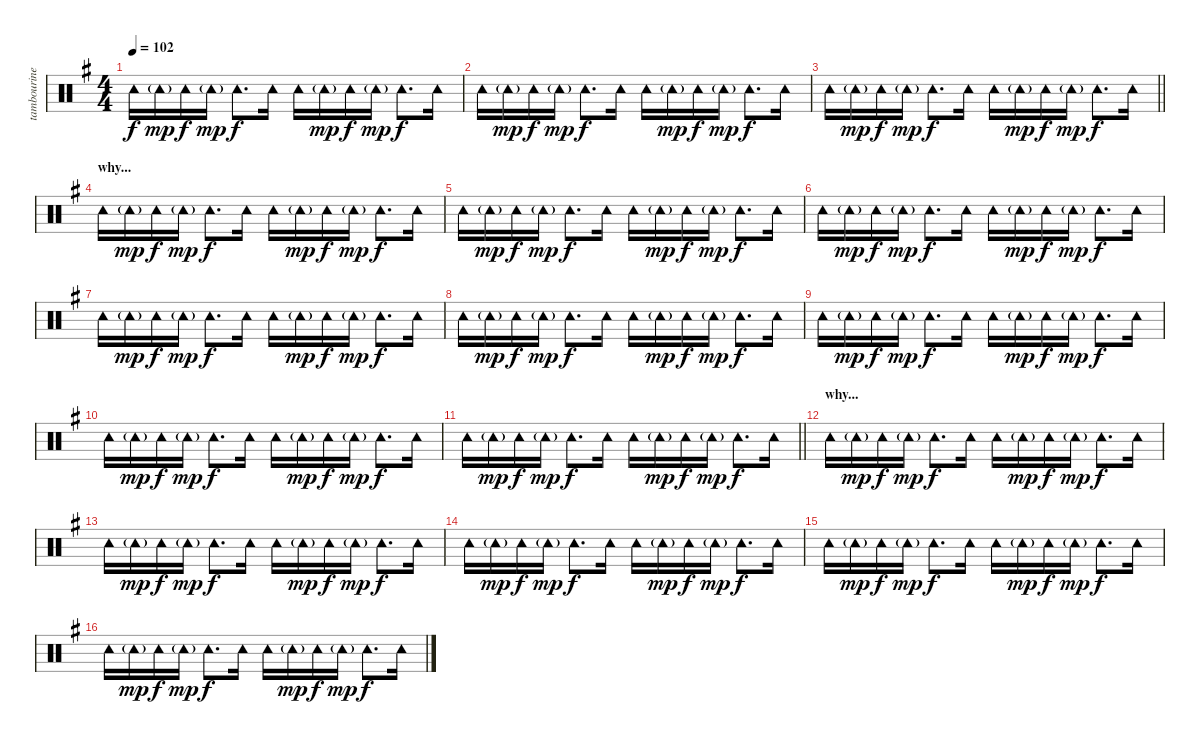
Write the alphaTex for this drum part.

\track ("tambourine" "tambourine") {instrument percussion}
\staff {score}
\articulation defaults
\ts (4 4)
\tempo 102
\clef neutral
\ks eminor "Tambourine (hit)".16{dy f} "Tambourine (hit)"{g}.16{dy mp} "Tambourine (hit)".16{dy f} "Tambourine (hit)"{g}.16{dy mp} "Tambourine (hit)".8{d dy f} "Tambourine (hit)".16 "Tambourine (hit)".16 "Tambourine (hit)"{g}.16{dy mp} "Tambourine (hit)".16{dy f} "Tambourine (hit)"{g}.16{dy mp} "Tambourine (hit)".8{d dy f} "Tambourine (hit)".16
|
"Tambourine (hit)".16 "Tambourine (hit)"{g}.16{dy mp} "Tambourine (hit)".16{dy f} "Tambourine (hit)"{g}.16{dy mp} "Tambourine (hit)".8{d dy f} "Tambourine (hit)".16 "Tambourine (hit)".16 "Tambourine (hit)"{g}.16{dy mp} "Tambourine (hit)".16{dy f} "Tambourine (hit)"{g}.16{dy mp} "Tambourine (hit)".8{d dy f} "Tambourine (hit)".16 |
\barLineRight lightlight "Tambourine (hit)".16 "Tambourine (hit)"{g}.16{dy mp} "Tambourine (hit)".16{dy f} "Tambourine (hit)"{g}.16{dy mp} "Tambourine (hit)".8{d dy f} "Tambourine (hit)".16 "Tambourine (hit)".16 "Tambourine (hit)"{g}.16{dy mp} "Tambourine (hit)".16{dy f} "Tambourine (hit)"{g}.16{dy mp} "Tambourine (hit)".8{d dy f} "Tambourine (hit)".16
|
\section ("" "why...")
"Tambourine (hit)".16 "Tambourine (hit)"{g}.16{dy mp} "Tambourine (hit)".16{dy f} "Tambourine (hit)"{g}.16{dy mp} "Tambourine (hit)".8{d dy f} "Tambourine (hit)".16 "Tambourine (hit)".16 "Tambourine (hit)"{g}.16{dy mp} "Tambourine (hit)".16{dy f} "Tambourine (hit)"{g}.16{dy mp} "Tambourine (hit)".8{d dy f} "Tambourine (hit)".16 |
"Tambourine (hit)".16 "Tambourine (hit)"{g}.16{dy mp} "Tambourine (hit)".16{dy f} "Tambourine (hit)"{g}.16{dy mp} "Tambourine (hit)".8{d dy f} "Tambourine (hit)".16 "Tambourine (hit)".16 "Tambourine (hit)"{g}.16{dy mp} "Tambourine (hit)".16{dy f} "Tambourine (hit)"{g}.16{dy mp} "Tambourine (hit)".8{d dy f} "Tambourine (hit)".16 |
"Tambourine (hit)".16 "Tambourine (hit)"{g}.16{dy mp} "Tambourine (hit)".16{dy f} "Tambourine (hit)"{g}.16{dy mp} "Tambourine (hit)".8{d dy f} "Tambourine (hit)".16 "Tambourine (hit)".16 "Tambourine (hit)"{g}.16{dy mp} "Tambourine (hit)".16{dy f} "Tambourine (hit)"{g}.16{dy mp} "Tambourine (hit)".8{d dy f} "Tambourine (hit)".16 |
"Tambourine (hit)".16 "Tambourine (hit)"{g}.16{dy mp} "Tambourine (hit)".16{dy f} "Tambourine (hit)"{g}.16{dy mp} "Tambourine (hit)".8{d dy f} "Tambourine (hit)".16 "Tambourine (hit)".16 "Tambourine (hit)"{g}.16{dy mp} "Tambourine (hit)".16{dy f} "Tambourine (hit)"{g}.16{dy mp} "Tambourine (hit)".8{d dy f} "Tambourine (hit)".16 |
"Tambourine (hit)".16 "Tambourine (hit)"{g}.16{dy mp} "Tambourine (hit)".16{dy f} "Tambourine (hit)"{g}.16{dy mp} "Tambourine (hit)".8{d dy f} "Tambourine (hit)".16 "Tambourine (hit)".16 "Tambourine (hit)"{g}.16{dy mp} "Tambourine (hit)".16{dy f} "Tambourine (hit)"{g}.16{dy mp} "Tambourine (hit)".8{d dy f} "Tambourine (hit)".16 |
"Tambourine (hit)".16 "Tambourine (hit)"{g}.16{dy mp} "Tambourine (hit)".16{dy f} "Tambourine (hit)"{g}.16{dy mp} "Tambourine (hit)".8{d dy f} "Tambourine (hit)".16 "Tambourine (hit)".16 "Tambourine (hit)"{g}.16{dy mp} "Tambourine (hit)".16{dy f} "Tambourine (hit)"{g}.16{dy mp} "Tambourine (hit)".8{d dy f} "Tambourine (hit)".16 |
"Tambourine (hit)".16 "Tambourine (hit)"{g}.16{dy mp} "Tambourine (hit)".16{dy f} "Tambourine (hit)"{g}.16{dy mp} "Tambourine (hit)".8{d dy f} "Tambourine (hit)".16 "Tambourine (hit)".16 "Tambourine (hit)"{g}.16{dy mp} "Tambourine (hit)".16{dy f} "Tambourine (hit)"{g}.16{dy mp} "Tambourine (hit)".8{d dy f} "Tambourine (hit)".16 |
\barLineRight lightlight "Tambourine (hit)".16 "Tambourine (hit)"{g}.16{dy mp} "Tambourine (hit)".16{dy f} "Tambourine (hit)"{g}.16{dy mp} "Tambourine (hit)".8{d dy f} "Tambourine (hit)".16 "Tambourine (hit)".16 "Tambourine (hit)"{g}.16{dy mp} "Tambourine (hit)".16{dy f} "Tambourine (hit)"{g}.16{dy mp} "Tambourine (hit)".8{d dy f} "Tambourine (hit)".16
|
\section ("" "why...")
"Tambourine (hit)".16 "Tambourine (hit)"{g}.16{dy mp} "Tambourine (hit)".16{dy f} "Tambourine (hit)"{g}.16{dy mp} "Tambourine (hit)".8{d dy f} "Tambourine (hit)".16 "Tambourine (hit)".16 "Tambourine (hit)"{g}.16{dy mp} "Tambourine (hit)".16{dy f} "Tambourine (hit)"{g}.16{dy mp} "Tambourine (hit)".8{d dy f} "Tambourine (hit)".16 |
"Tambourine (hit)".16 "Tambourine (hit)"{g}.16{dy mp} "Tambourine (hit)".16{dy f} "Tambourine (hit)"{g}.16{dy mp} "Tambourine (hit)".8{d dy f} "Tambourine (hit)".16 "Tambourine (hit)".16 "Tambourine (hit)"{g}.16{dy mp} "Tambourine (hit)".16{dy f} "Tambourine (hit)"{g}.16{dy mp} "Tambourine (hit)".8{d dy f} "Tambourine (hit)".16 |
"Tambourine (hit)".16 "Tambourine (hit)"{g}.16{dy mp} "Tambourine (hit)".16{dy f} "Tambourine (hit)"{g}.16{dy mp} "Tambourine (hit)".8{d dy f} "Tambourine (hit)".16 "Tambourine (hit)".16 "Tambourine (hit)"{g}.16{dy mp} "Tambourine (hit)".16{dy f} "Tambourine (hit)"{g}.16{dy mp} "Tambourine (hit)".8{d dy f} "Tambourine (hit)".16 |
"Tambourine (hit)".16 "Tambourine (hit)"{g}.16{dy mp} "Tambourine (hit)".16{dy f} "Tambourine (hit)"{g}.16{dy mp} "Tambourine (hit)".8{d dy f} "Tambourine (hit)".16 "Tambourine (hit)".16 "Tambourine (hit)"{g}.16{dy mp} "Tambourine (hit)".16{dy f} "Tambourine (hit)"{g}.16{dy mp} "Tambourine (hit)".8{d dy f} "Tambourine (hit)".16 |
"Tambourine (hit)".16 "Tambourine (hit)"{g}.16{dy mp} "Tambourine (hit)".16{dy f} "Tambourine (hit)"{g}.16{dy mp} "Tambourine (hit)".8{d dy f} "Tambourine (hit)".16 "Tambourine (hit)".16 "Tambourine (hit)"{g}.16{dy mp} "Tambourine (hit)".16{dy f} "Tambourine (hit)"{g}.16{dy mp} "Tambourine (hit)".8{d dy f} "Tambourine (hit)".16
